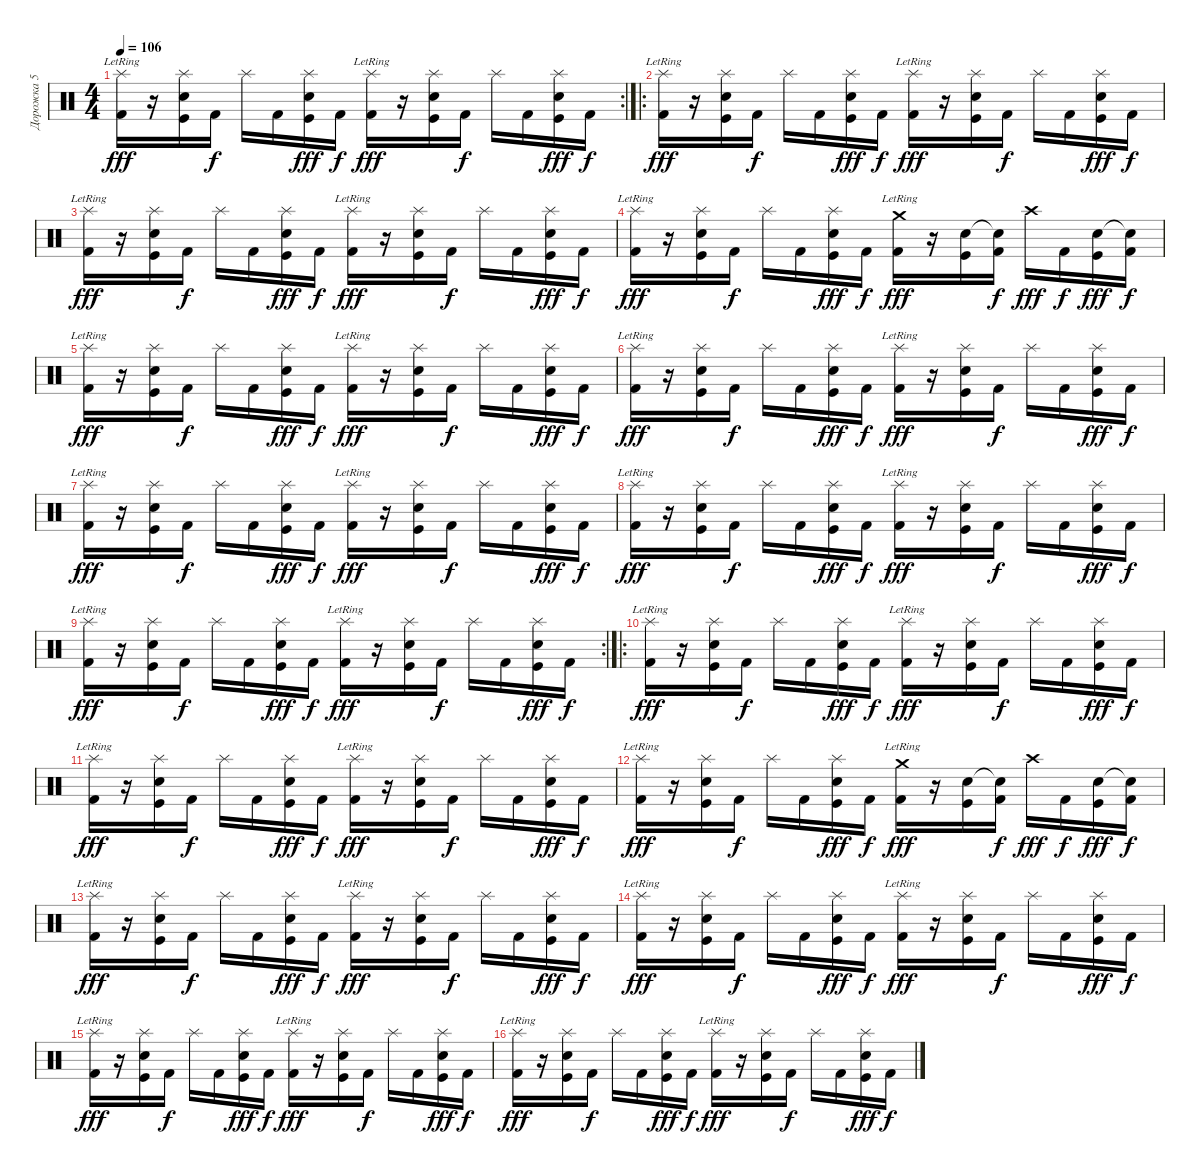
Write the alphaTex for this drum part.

\track ("Дорожка 5" "Дорожка 5") {instrument percussion}
\staff {score}
\articulation defaults
\rc 2
\ts (4 4)
\tempo 106
\clef neutral
\ks c
("Splash (hit)"{lr} "Kick (hit) 2").16{dy fff} r.16 ("Splash (hit)"{pm} "Electric Snare (hit)" "Kick (hit)").16 "Kick (hit) 2".16{dy f} "Splash (hit)"{pm}.16 "Kick (hit) 2".16 ("Splash (hit)"{pm} "Electric Snare (hit)" "Kick (hit)").16{dy fff} "Kick (hit) 2".16{dy f} ("Splash (hit)"{lr} "Kick (hit) 2").16{dy fff} r.16 ("Splash (hit)"{pm} "Electric Snare (hit)" "Kick (hit)").16 "Kick (hit) 2".16{dy f} "Splash (hit)"{pm}.16 "Kick (hit) 2".16 ("Splash (hit)"{pm} "Electric Snare (hit)" "Kick (hit)").16{dy fff} "Kick (hit) 2".16{dy f} |
\ro
("Splash (hit)"{lr} "Kick (hit) 2").16{dy fff} r.16 ("Splash (hit)"{pm} "Electric Snare (hit)" "Kick (hit)").16 "Kick (hit) 2".16{dy f} "Splash (hit)"{pm}.16 "Kick (hit) 2".16 ("Splash (hit)"{pm} "Electric Snare (hit)" "Kick (hit)").16{dy fff} "Kick (hit) 2".16{dy f} ("Splash (hit)"{lr} "Kick (hit) 2").16{dy fff} r.16 ("Splash (hit)"{pm} "Electric Snare (hit)" "Kick (hit)").16 "Kick (hit) 2".16{dy f} "Splash (hit)"{pm}.16 "Kick (hit) 2".16 ("Splash (hit)"{pm} "Electric Snare (hit)" "Kick (hit)").16{dy fff} "Kick (hit) 2".16{dy f} |
("Splash (hit)"{lr} "Kick (hit) 2").16{dy fff} r.16 ("Splash (hit)"{pm} "Electric Snare (hit)" "Kick (hit)").16 "Kick (hit) 2".16{dy f} "Splash (hit)"{pm}.16 "Kick (hit) 2".16 ("Splash (hit)"{pm} "Electric Snare (hit)" "Kick (hit)").16{dy fff} "Kick (hit) 2".16{dy f} ("Splash (hit)"{lr} "Kick (hit) 2").16{dy fff} r.16 ("Splash (hit)"{pm} "Electric Snare (hit)" "Kick (hit)").16 "Kick (hit) 2".16{dy f} "Splash (hit)"{pm}.16 "Kick (hit) 2".16 ("Splash (hit)"{pm} "Electric Snare (hit)" "Kick (hit)").16{dy fff} "Kick (hit) 2".16{dy f} |
("Splash (hit)"{lr} "Kick (hit) 2").16{dy fff} r.16 ("Splash (hit)"{pm} "Electric Snare (hit)" "Kick (hit)").16 "Kick (hit) 2".16{dy f} "Splash (hit)"{pm}.16 "Kick (hit) 2".16 ("Splash (hit)"{pm} "Electric Snare (hit)" "Kick (hit)").16{dy fff} "Kick (hit) 2".16{dy f} ("Crash medium (hit)"{lr} "Kick (hit) 2").16{dy fff} r.16 ("Electric Snare (hit)" "Kick (hit)").16 ("Snare (hit)"{t} "Kick (hit) 2").16{dy f} "Crash high (hit)"{pm}.16{dy fff} "Kick (hit) 2".16{dy f} ("Electric Snare (hit)" "Kick (hit)").16{dy fff} ("Snare (hit)"{t} "Kick (hit) 2").16{dy f} |
("Splash (hit)"{lr} "Kick (hit) 2").16{dy fff} r.16 ("Splash (hit)"{pm} "Electric Snare (hit)" "Kick (hit)").16 "Kick (hit) 2".16{dy f} "Splash (hit)"{pm}.16 "Kick (hit) 2".16 ("Splash (hit)"{pm} "Electric Snare (hit)" "Kick (hit)").16{dy fff} "Kick (hit) 2".16{dy f} ("Splash (hit)"{lr} "Kick (hit) 2").16{dy fff} r.16 ("Splash (hit)"{pm} "Electric Snare (hit)" "Kick (hit)").16 "Kick (hit) 2".16{dy f} "Splash (hit)"{pm}.16 "Kick (hit) 2".16 ("Splash (hit)"{pm} "Electric Snare (hit)" "Kick (hit)").16{dy fff} "Kick (hit) 2".16{dy f} |
("Splash (hit)"{lr} "Kick (hit) 2").16{dy fff} r.16 ("Splash (hit)"{pm} "Electric Snare (hit)" "Kick (hit)").16 "Kick (hit) 2".16{dy f} "Splash (hit)"{pm}.16 "Kick (hit) 2".16 ("Splash (hit)"{pm} "Electric Snare (hit)" "Kick (hit)").16{dy fff} "Kick (hit) 2".16{dy f} ("Splash (hit)"{lr} "Kick (hit) 2").16{dy fff} r.16 ("Splash (hit)"{pm} "Electric Snare (hit)" "Kick (hit)").16 "Kick (hit) 2".16{dy f} "Splash (hit)"{pm}.16 "Kick (hit) 2".16 ("Splash (hit)"{pm} "Electric Snare (hit)" "Kick (hit)").16{dy fff} "Kick (hit) 2".16{dy f} |
("Splash (hit)"{lr} "Kick (hit) 2").16{dy fff} r.16 ("Splash (hit)"{pm} "Electric Snare (hit)" "Kick (hit)").16 "Kick (hit) 2".16{dy f} "Splash (hit)"{pm}.16 "Kick (hit) 2".16 ("Splash (hit)"{pm} "Electric Snare (hit)" "Kick (hit)").16{dy fff} "Kick (hit) 2".16{dy f} ("Splash (hit)"{lr} "Kick (hit) 2").16{dy fff} r.16 ("Splash (hit)"{pm} "Electric Snare (hit)" "Kick (hit)").16 "Kick (hit) 2".16{dy f} "Splash (hit)"{pm}.16 "Kick (hit) 2".16 ("Splash (hit)"{pm} "Electric Snare (hit)" "Kick (hit)").16{dy fff} "Kick (hit) 2".16{dy f} |
("Splash (hit)"{lr} "Kick (hit) 2").16{dy fff} r.16 ("Splash (hit)"{pm} "Electric Snare (hit)" "Kick (hit)").16 "Kick (hit) 2".16{dy f} "Splash (hit)"{pm}.16 "Kick (hit) 2".16 ("Splash (hit)"{pm} "Electric Snare (hit)" "Kick (hit)").16{dy fff} "Kick (hit) 2".16{dy f} ("Splash (hit)"{lr} "Kick (hit) 2").16{dy fff} r.16 ("Splash (hit)"{pm} "Electric Snare (hit)" "Kick (hit)").16 "Kick (hit) 2".16{dy f} "Splash (hit)"{pm}.16 "Kick (hit) 2".16 ("Splash (hit)"{pm} "Electric Snare (hit)" "Kick (hit)").16{dy fff} "Kick (hit) 2".16{dy f} |
\rc 2
("Splash (hit)"{lr} "Kick (hit) 2").16{dy fff} r.16 ("Splash (hit)"{pm} "Electric Snare (hit)" "Kick (hit)").16 "Kick (hit) 2".16{dy f} "Splash (hit)"{pm}.16 "Kick (hit) 2".16 ("Splash (hit)"{pm} "Electric Snare (hit)" "Kick (hit)").16{dy fff} "Kick (hit) 2".16{dy f} ("Splash (hit)"{lr} "Kick (hit) 2").16{dy fff} r.16 ("Splash (hit)"{pm} "Electric Snare (hit)" "Kick (hit)").16 "Kick (hit) 2".16{dy f} "Splash (hit)"{pm}.16 "Kick (hit) 2".16 ("Splash (hit)"{pm} "Electric Snare (hit)" "Kick (hit)").16{dy fff} "Kick (hit) 2".16{dy f} |
\ro
("Splash (hit)"{lr} "Kick (hit) 2").16{dy fff} r.16 ("Splash (hit)"{pm} "Electric Snare (hit)" "Kick (hit)").16 "Kick (hit) 2".16{dy f} "Splash (hit)"{pm}.16 "Kick (hit) 2".16 ("Splash (hit)"{pm} "Electric Snare (hit)" "Kick (hit)").16{dy fff} "Kick (hit) 2".16{dy f} ("Splash (hit)"{lr} "Kick (hit) 2").16{dy fff} r.16 ("Splash (hit)"{pm} "Electric Snare (hit)" "Kick (hit)").16 "Kick (hit) 2".16{dy f} "Splash (hit)"{pm}.16 "Kick (hit) 2".16 ("Splash (hit)"{pm} "Electric Snare (hit)" "Kick (hit)").16{dy fff} "Kick (hit) 2".16{dy f} |
("Splash (hit)"{lr} "Kick (hit) 2").16{dy fff} r.16 ("Splash (hit)"{pm} "Electric Snare (hit)" "Kick (hit)").16 "Kick (hit) 2".16{dy f} "Splash (hit)"{pm}.16 "Kick (hit) 2".16 ("Splash (hit)"{pm} "Electric Snare (hit)" "Kick (hit)").16{dy fff} "Kick (hit) 2".16{dy f} ("Splash (hit)"{lr} "Kick (hit) 2").16{dy fff} r.16 ("Splash (hit)"{pm} "Electric Snare (hit)" "Kick (hit)").16 "Kick (hit) 2".16{dy f} "Splash (hit)"{pm}.16 "Kick (hit) 2".16 ("Splash (hit)"{pm} "Electric Snare (hit)" "Kick (hit)").16{dy fff} "Kick (hit) 2".16{dy f} |
("Splash (hit)"{lr} "Kick (hit) 2").16{dy fff} r.16 ("Splash (hit)"{pm} "Electric Snare (hit)" "Kick (hit)").16 "Kick (hit) 2".16{dy f} "Splash (hit)"{pm}.16 "Kick (hit) 2".16 ("Splash (hit)"{pm} "Electric Snare (hit)" "Kick (hit)").16{dy fff} "Kick (hit) 2".16{dy f} ("Crash medium (hit)"{lr} "Kick (hit) 2").16{dy fff} r.16 ("Electric Snare (hit)" "Kick (hit)").16 ("Snare (hit)"{t} "Kick (hit) 2").16{dy f} "Crash high (hit)"{pm}.16{dy fff} "Kick (hit) 2".16{dy f} ("Electric Snare (hit)" "Kick (hit)").16{dy fff} ("Snare (hit)"{t} "Kick (hit) 2").16{dy f} |
("Splash (hit)"{lr} "Kick (hit) 2").16{dy fff} r.16 ("Splash (hit)"{pm} "Electric Snare (hit)" "Kick (hit)").16 "Kick (hit) 2".16{dy f} "Splash (hit)"{pm}.16 "Kick (hit) 2".16 ("Splash (hit)"{pm} "Electric Snare (hit)" "Kick (hit)").16{dy fff} "Kick (hit) 2".16{dy f} ("Splash (hit)"{lr} "Kick (hit) 2").16{dy fff} r.16 ("Splash (hit)"{pm} "Electric Snare (hit)" "Kick (hit)").16 "Kick (hit) 2".16{dy f} "Splash (hit)"{pm}.16 "Kick (hit) 2".16 ("Splash (hit)"{pm} "Electric Snare (hit)" "Kick (hit)").16{dy fff} "Kick (hit) 2".16{dy f} |
("Splash (hit)"{lr} "Kick (hit) 2").16{dy fff} r.16 ("Splash (hit)"{pm} "Electric Snare (hit)" "Kick (hit)").16 "Kick (hit) 2".16{dy f} "Splash (hit)"{pm}.16 "Kick (hit) 2".16 ("Splash (hit)"{pm} "Electric Snare (hit)" "Kick (hit)").16{dy fff} "Kick (hit) 2".16{dy f} ("Splash (hit)"{lr} "Kick (hit) 2").16{dy fff} r.16 ("Splash (hit)"{pm} "Electric Snare (hit)" "Kick (hit)").16 "Kick (hit) 2".16{dy f} "Splash (hit)"{pm}.16 "Kick (hit) 2".16 ("Splash (hit)"{pm} "Electric Snare (hit)" "Kick (hit)").16{dy fff} "Kick (hit) 2".16{dy f} |
("Splash (hit)"{lr} "Kick (hit) 2").16{dy fff} r.16 ("Splash (hit)"{pm} "Electric Snare (hit)" "Kick (hit)").16 "Kick (hit) 2".16{dy f} "Splash (hit)"{pm}.16 "Kick (hit) 2".16 ("Splash (hit)"{pm} "Electric Snare (hit)" "Kick (hit)").16{dy fff} "Kick (hit) 2".16{dy f} ("Splash (hit)"{lr} "Kick (hit) 2").16{dy fff} r.16 ("Splash (hit)"{pm} "Electric Snare (hit)" "Kick (hit)").16 "Kick (hit) 2".16{dy f} "Splash (hit)"{pm}.16 "Kick (hit) 2".16 ("Splash (hit)"{pm} "Electric Snare (hit)" "Kick (hit)").16{dy fff} "Kick (hit) 2".16{dy f} |
("Splash (hit)"{lr} "Kick (hit) 2").16{dy fff} r.16 ("Splash (hit)"{pm} "Electric Snare (hit)" "Kick (hit)").16 "Kick (hit) 2".16{dy f} "Splash (hit)"{pm}.16 "Kick (hit) 2".16 ("Splash (hit)"{pm} "Electric Snare (hit)" "Kick (hit)").16{dy fff} "Kick (hit) 2".16{dy f} ("Splash (hit)"{lr} "Kick (hit) 2").16{dy fff} r.16 ("Splash (hit)"{pm} "Electric Snare (hit)" "Kick (hit)").16 "Kick (hit) 2".16{dy f} "Splash (hit)"{pm}.16 "Kick (hit) 2".16 ("Splash (hit)"{pm} "Electric Snare (hit)" "Kick (hit)").16{dy fff} "Kick (hit) 2".16{dy f}
